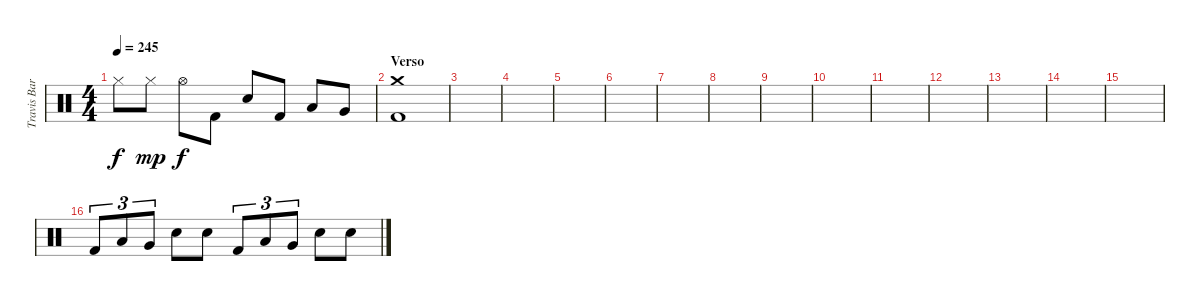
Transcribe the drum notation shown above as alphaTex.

\track ("Travis Barker - Batería" "Travis Bar") {instrument percussion}
\staff {score}
\articulation defaults
\ts (4 4)
\tempo 245
\clef neutral
\ks c "Hi-Hat (closed)".8{dy f} "Hi-Hat (closed)".8{dy mp} "Hi-Hat (open)".8{dy f} "Kick (hit) 2".8 "Electric Snare (hit)".8 "Kick (hit) 2".8 "Low Tom (hit)".8 "Very Low Tom (hit)".8
|
\section ("" "Verso")
("Crash medium (hit)" "Kick (hit) 2").1 |
|
|
|
|
|
|
|
|
|
|
|
|
|
"Kick (hit) 2".8{tu (3 2)} "Low Tom (hit)".8{tu (3 2)} "Very Low Tom (hit)".8{tu (3 2)} "Electric Snare (hit)".8 "Electric Snare (hit)".8 "Kick (hit) 2".8{tu (3 2)} "Low Tom (hit)".8{tu (3 2)} "Very Low Tom (hit)".8{tu (3 2)} "Electric Snare (hit)".8 "Electric Snare (hit)".8
